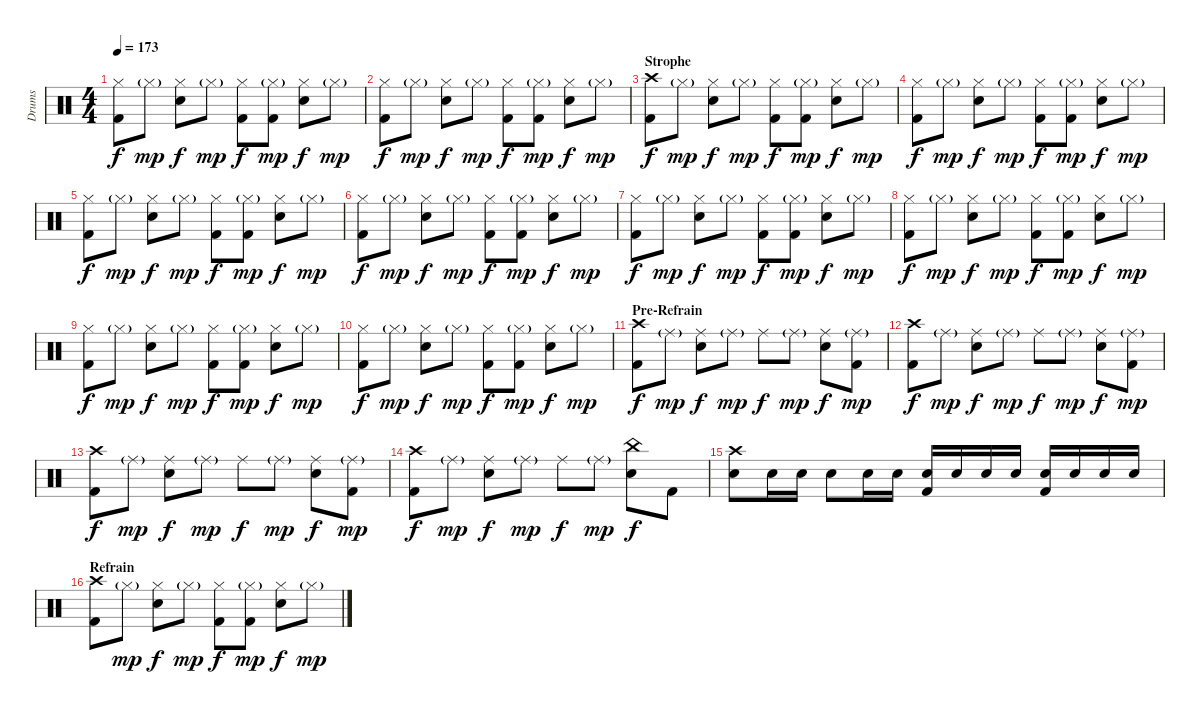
\track ("Drums" "Drums") {instrument percussion}
\staff {score}
\articulation defaults
\ts (4 4)
\tempo 173
\clef neutral
\ks c
("Hi-Hat (closed)" "Kick (hit) 2").8{dy f} "Hi-Hat (closed)"{g}.8{dy mp} ("Hi-Hat (closed)" "Electric Snare (hit)").8{dy f} "Hi-Hat (closed)"{g}.8{dy mp} ("Hi-Hat (closed)" "Kick (hit) 2").8{dy f} ("Hi-Hat (closed)"{g} "Kick (hit) 2").8{dy mp} ("Hi-Hat (closed)" "Electric Snare (hit)").8{dy f} "Hi-Hat (closed)"{g}.8{dy mp} |
("Hi-Hat (closed)" "Kick (hit) 2").8{dy f} "Hi-Hat (closed)"{g}.8{dy mp} ("Hi-Hat (closed)" "Electric Snare (hit)").8{dy f} "Hi-Hat (closed)"{g}.8{dy mp} ("Hi-Hat (closed)" "Kick (hit) 2").8{dy f} ("Hi-Hat (closed)"{g} "Kick (hit) 2").8{dy mp} ("Hi-Hat (closed)" "Electric Snare (hit)").8{dy f} "Hi-Hat (closed)"{g}.8{dy mp} |
\section ("" "Strophe")
("Crash high (hit)" "Kick (hit) 2").8{dy f} "Hi-Hat (closed)"{g}.8{dy mp} ("Hi-Hat (closed)" "Electric Snare (hit)").8{dy f} "Hi-Hat (closed)"{g}.8{dy mp} ("Hi-Hat (closed)" "Kick (hit) 2").8{dy f} ("Hi-Hat (closed)"{g} "Kick (hit) 2").8{dy mp} ("Hi-Hat (closed)" "Electric Snare (hit)").8{dy f} "Hi-Hat (closed)"{g}.8{dy mp} |
("Hi-Hat (closed)" "Kick (hit) 2").8{dy f} "Hi-Hat (closed)"{g}.8{dy mp} ("Hi-Hat (closed)" "Electric Snare (hit)").8{dy f} "Hi-Hat (closed)"{g}.8{dy mp} ("Hi-Hat (closed)" "Kick (hit) 2").8{dy f} ("Hi-Hat (closed)"{g} "Kick (hit) 2").8{dy mp} ("Hi-Hat (closed)" "Electric Snare (hit)").8{dy f} "Hi-Hat (closed)"{g}.8{dy mp} |
("Hi-Hat (closed)" "Kick (hit) 2").8{dy f} "Hi-Hat (closed)"{g}.8{dy mp} ("Hi-Hat (closed)" "Electric Snare (hit)").8{dy f} "Hi-Hat (closed)"{g}.8{dy mp} ("Hi-Hat (closed)" "Kick (hit) 2").8{dy f} ("Hi-Hat (closed)"{g} "Kick (hit) 2").8{dy mp} ("Hi-Hat (closed)" "Electric Snare (hit)").8{dy f} "Hi-Hat (closed)"{g}.8{dy mp} |
("Hi-Hat (closed)" "Kick (hit) 2").8{dy f} "Hi-Hat (closed)"{g}.8{dy mp} ("Hi-Hat (closed)" "Electric Snare (hit)").8{dy f} "Hi-Hat (closed)"{g}.8{dy mp} ("Hi-Hat (closed)" "Kick (hit) 2").8{dy f} ("Hi-Hat (closed)"{g} "Kick (hit) 2").8{dy mp} ("Hi-Hat (closed)" "Electric Snare (hit)").8{dy f} "Hi-Hat (closed)"{g}.8{dy mp} |
("Hi-Hat (closed)" "Kick (hit) 2").8{dy f} "Hi-Hat (closed)"{g}.8{dy mp} ("Hi-Hat (closed)" "Electric Snare (hit)").8{dy f} "Hi-Hat (closed)"{g}.8{dy mp} ("Hi-Hat (closed)" "Kick (hit) 2").8{dy f} ("Hi-Hat (closed)"{g} "Kick (hit) 2").8{dy mp} ("Hi-Hat (closed)" "Electric Snare (hit)").8{dy f} "Hi-Hat (closed)"{g}.8{dy mp} |
("Hi-Hat (closed)" "Kick (hit) 2").8{dy f} "Hi-Hat (closed)"{g}.8{dy mp} ("Hi-Hat (closed)" "Electric Snare (hit)").8{dy f} "Hi-Hat (closed)"{g}.8{dy mp} ("Hi-Hat (closed)" "Kick (hit) 2").8{dy f} ("Hi-Hat (closed)"{g} "Kick (hit) 2").8{dy mp} ("Hi-Hat (closed)" "Electric Snare (hit)").8{dy f} "Hi-Hat (closed)"{g}.8{dy mp} |
("Hi-Hat (closed)" "Kick (hit) 2").8{dy f} "Hi-Hat (closed)"{g}.8{dy mp} ("Hi-Hat (closed)" "Electric Snare (hit)").8{dy f} "Hi-Hat (closed)"{g}.8{dy mp} ("Hi-Hat (closed)" "Kick (hit) 2").8{dy f} ("Hi-Hat (closed)"{g} "Kick (hit) 2").8{dy mp} ("Hi-Hat (closed)" "Electric Snare (hit)").8{dy f} "Hi-Hat (closed)"{g}.8{dy mp} |
("Hi-Hat (closed)" "Kick (hit) 2").8{dy f} "Hi-Hat (closed)"{g}.8{dy mp} ("Hi-Hat (closed)" "Electric Snare (hit)").8{dy f} "Hi-Hat (closed)"{g}.8{dy mp} ("Hi-Hat (closed)" "Kick (hit) 2").8{dy f} ("Hi-Hat (closed)"{g} "Kick (hit) 2").8{dy mp} ("Hi-Hat (closed)" "Electric Snare (hit)").8{dy f} "Hi-Hat (closed)"{g}.8{dy mp} |
\section ("" "Pre-Refrain")
("Crash high (hit)" "Kick (hit) 2").8{dy f} "Ride (middle)"{g}.8{dy mp} ("Ride (middle)" "Electric Snare (hit)").8{dy f} "Ride (middle)"{g}.8{dy mp} "Ride (middle)".8{dy f} "Ride (middle)"{g}.8{dy mp} ("Ride (middle)" "Electric Snare (hit)").8{dy f} ("Ride (middle)"{g} "Kick (hit) 2").8{dy mp} |
("Crash high (hit)" "Kick (hit) 2").8{dy f} "Ride (middle)"{g}.8{dy mp} ("Ride (middle)" "Electric Snare (hit)").8{dy f} "Ride (middle)"{g}.8{dy mp} "Ride (middle)".8{dy f} "Ride (middle)"{g}.8{dy mp} ("Ride (middle)" "Electric Snare (hit)").8{dy f} ("Ride (middle)"{g} "Kick (hit) 2").8{dy mp} |
("Crash high (hit)" "Kick (hit) 2").8{dy f} "Ride (middle)"{g}.8{dy mp} ("Ride (middle)" "Electric Snare (hit)").8{dy f} "Ride (middle)"{g}.8{dy mp} "Ride (middle)".8{dy f} "Ride (middle)"{g}.8{dy mp} ("Ride (middle)" "Electric Snare (hit)").8{dy f} ("Ride (middle)"{g} "Kick (hit) 2").8{dy mp} |
("Crash high (hit)" "Kick (hit) 2").8{dy f} "Ride (middle)"{g}.8{dy mp} ("Ride (middle)" "Electric Snare (hit)").8{dy f} "Ride (middle)"{g}.8{dy mp} "Ride (middle)".8{dy f} "Ride (middle)"{g}.8{dy mp} ("China (hit)" "Electric Snare (hit)").8{dy f} "Kick (hit) 2".8 |
("Crash high (hit)" "Electric Snare (hit)").8 "Electric Snare (hit)".16 "Electric Snare (hit)".16 "Electric Snare (hit)".8 "Electric Snare (hit)".16 "Electric Snare (hit)".16 ("Electric Snare (hit)" "Kick (hit) 2").16 "Electric Snare (hit)".16 "Electric Snare (hit)".16 "Electric Snare (hit)".16 ("Electric Snare (hit)" "Kick (hit) 2").16 "Electric Snare (hit)".16 "Electric Snare (hit)".16 "Electric Snare (hit)".16 |
\section ("" "Refrain")
("Crash high (hit)" "Kick (hit) 2").8 "Hi-Hat (closed)"{g}.8{dy mp} ("Hi-Hat (closed)" "Electric Snare (hit)").8{dy f} "Hi-Hat (closed)"{g}.8{dy mp} ("Hi-Hat (closed)" "Kick (hit) 2").8{dy f} ("Hi-Hat (closed)"{g} "Kick (hit) 2").8{dy mp} ("Hi-Hat (closed)" "Electric Snare (hit)").8{dy f} "Hi-Hat (closed)"{g}.8{dy mp}
